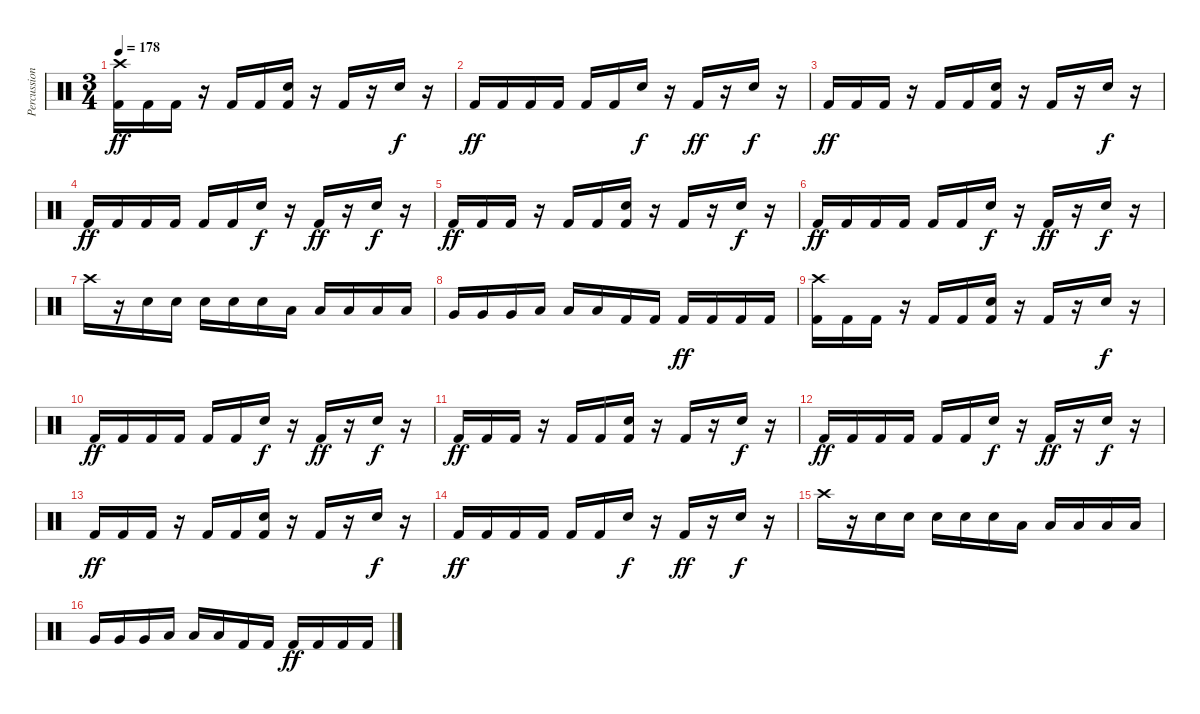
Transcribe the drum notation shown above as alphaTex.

\track ("Percussion" "Percussion") {instrument percussion}
\staff {score}
\articulation defaults
\ts (3 4)
\tempo 178
\clef neutral
\ks c
("Crash high (hit)" "Kick (hit) 2").16{dy ff} "Kick (hit) 2".16 "Kick (hit) 2".16 r.16 "Kick (hit) 2".16 "Kick (hit) 2".16 ("Electric Snare (hit)" "Kick (hit) 2").16 r.16 "Kick (hit) 2".16 r.16 "Electric Snare (hit)".16{dy f} r.16 |
"Kick (hit) 2".16{dy ff} "Kick (hit) 2".16 "Kick (hit) 2".16 "Kick (hit) 2".16 "Kick (hit) 2".16 "Kick (hit) 2".16 "Electric Snare (hit)".16{dy f} r.16 "Kick (hit) 2".16{dy ff} r.16 "Electric Snare (hit)".16{dy f} r.16 |
"Kick (hit) 2".16{dy ff} "Kick (hit) 2".16 "Kick (hit) 2".16 r.16 "Kick (hit) 2".16 "Kick (hit) 2".16 ("Electric Snare (hit)" "Kick (hit) 2").16 r.16 "Kick (hit) 2".16 r.16 "Electric Snare (hit)".16{dy f} r.16 |
"Kick (hit) 2".16{dy ff} "Kick (hit) 2".16 "Kick (hit) 2".16 "Kick (hit) 2".16 "Kick (hit) 2".16 "Kick (hit) 2".16 "Electric Snare (hit)".16{dy f} r.16 "Kick (hit) 2".16{dy ff} r.16 "Electric Snare (hit)".16{dy f} r.16 |
"Kick (hit) 2".16{dy ff} "Kick (hit) 2".16 "Kick (hit) 2".16 r.16 "Kick (hit) 2".16 "Kick (hit) 2".16 ("Electric Snare (hit)" "Kick (hit) 2").16 r.16 "Kick (hit) 2".16 r.16 "Electric Snare (hit)".16{dy f} r.16 |
"Kick (hit) 2".16{dy ff} "Kick (hit) 2".16 "Kick (hit) 2".16 "Kick (hit) 2".16 "Kick (hit) 2".16 "Kick (hit) 2".16 "Electric Snare (hit)".16{dy f} r.16 "Kick (hit) 2".16{dy ff} r.16 "Electric Snare (hit)".16{dy f} r.16 |
"Crash high (hit)".16 r.16 "Electric Snare (hit)".16 "Electric Snare (hit)".16 "Electric Snare (hit)".16 "Electric Snare (hit)".16 "Electric Snare (hit)".16 "Low Tom (hit)".16 "Low Tom (hit)".16 "Low Tom (hit)".16 "Low Tom (hit)".16 "Low Tom (hit)".16 |
"Very Low Tom (hit)".16 "Very Low Tom (hit)".16 "Very Low Tom (hit)".16 "Low Floor Tom (hit)".16 "Low Floor Tom (hit)".16 "Low Floor Tom (hit)".16 "Kick (hit) 2".16 "Kick (hit) 2".16 "Kick (hit) 2".16{dy ff} "Kick (hit) 2".16 "Kick (hit) 2".16 "Kick (hit) 2".16 |
("Crash high (hit)" "Kick (hit) 2").16 "Kick (hit) 2".16 "Kick (hit) 2".16 r.16 "Kick (hit) 2".16 "Kick (hit) 2".16 ("Electric Snare (hit)" "Kick (hit) 2").16 r.16 "Kick (hit) 2".16 r.16 "Electric Snare (hit)".16{dy f} r.16 |
"Kick (hit) 2".16{dy ff} "Kick (hit) 2".16 "Kick (hit) 2".16 "Kick (hit) 2".16 "Kick (hit) 2".16 "Kick (hit) 2".16 "Electric Snare (hit)".16{dy f} r.16 "Kick (hit) 2".16{dy ff} r.16 "Electric Snare (hit)".16{dy f} r.16 |
"Kick (hit) 2".16{dy ff} "Kick (hit) 2".16 "Kick (hit) 2".16 r.16 "Kick (hit) 2".16 "Kick (hit) 2".16 ("Electric Snare (hit)" "Kick (hit) 2").16 r.16 "Kick (hit) 2".16 r.16 "Electric Snare (hit)".16{dy f} r.16 |
"Kick (hit) 2".16{dy ff} "Kick (hit) 2".16 "Kick (hit) 2".16 "Kick (hit) 2".16 "Kick (hit) 2".16 "Kick (hit) 2".16 "Electric Snare (hit)".16{dy f} r.16 "Kick (hit) 2".16{dy ff} r.16 "Electric Snare (hit)".16{dy f} r.16 |
"Kick (hit) 2".16{dy ff} "Kick (hit) 2".16 "Kick (hit) 2".16 r.16 "Kick (hit) 2".16 "Kick (hit) 2".16 ("Electric Snare (hit)" "Kick (hit) 2").16 r.16 "Kick (hit) 2".16 r.16 "Electric Snare (hit)".16{dy f} r.16 |
"Kick (hit) 2".16{dy ff} "Kick (hit) 2".16 "Kick (hit) 2".16 "Kick (hit) 2".16 "Kick (hit) 2".16 "Kick (hit) 2".16 "Electric Snare (hit)".16{dy f} r.16 "Kick (hit) 2".16{dy ff} r.16 "Electric Snare (hit)".16{dy f} r.16 |
"Crash high (hit)".16 r.16 "Electric Snare (hit)".16 "Electric Snare (hit)".16 "Electric Snare (hit)".16 "Electric Snare (hit)".16 "Electric Snare (hit)".16 "Low Tom (hit)".16 "Low Tom (hit)".16 "Low Tom (hit)".16 "Low Tom (hit)".16 "Low Tom (hit)".16 |
"Very Low Tom (hit)".16 "Very Low Tom (hit)".16 "Very Low Tom (hit)".16 "Low Floor Tom (hit)".16 "Low Floor Tom (hit)".16 "Low Floor Tom (hit)".16 "Kick (hit) 2".16 "Kick (hit) 2".16 "Kick (hit) 2".16{dy ff} "Kick (hit) 2".16 "Kick (hit) 2".16 "Kick (hit) 2".16
